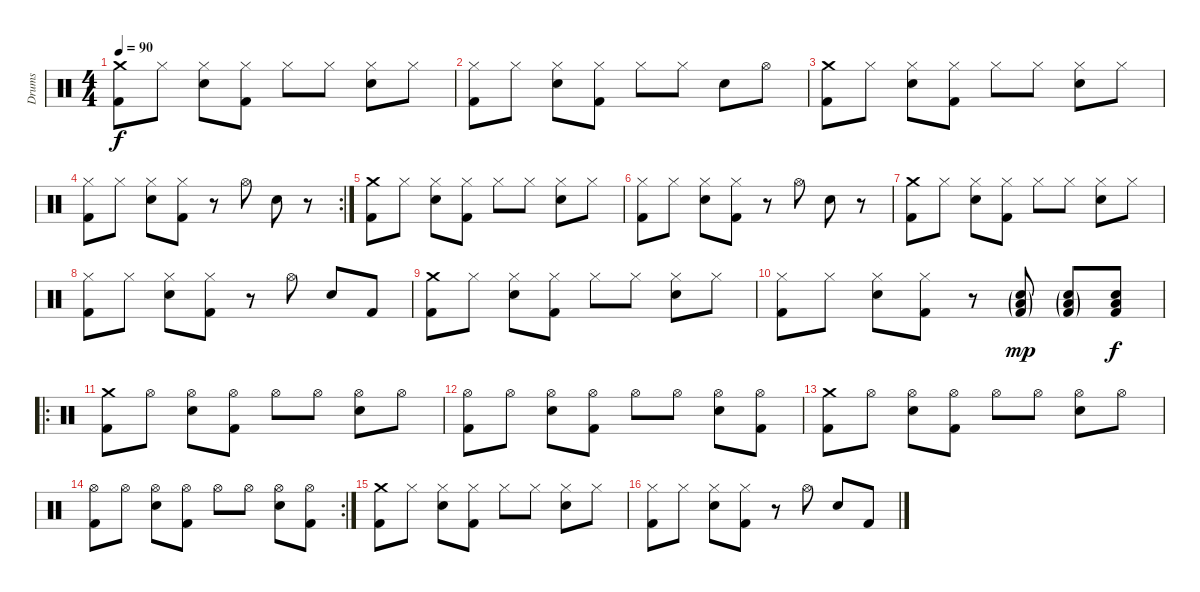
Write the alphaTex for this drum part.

\track ("Drums" "Drums") {instrument percussion}
\staff {score}
\articulation defaults
\ts (4 4)
\tempo 90
\clef neutral
\ks c
("Crash medium (hit)" "Kick (hit) 2").8{dy f} "Hi-Hat (closed)".8 ("Hi-Hat (closed)" "Snare (hit) 2").8 ("Hi-Hat (closed)" "Kick (hit) 2").8 "Hi-Hat (closed)".8 "Hi-Hat (closed)".8 ("Hi-Hat (closed)" "Snare (hit) 2").8 "Hi-Hat (closed)".8 |
("Hi-Hat (closed)" "Kick (hit) 2").8 "Hi-Hat (closed)".8 ("Hi-Hat (closed)" "Snare (hit) 2").8 ("Hi-Hat (closed)" "Kick (hit) 2").8 "Hi-Hat (closed)".8 "Hi-Hat (closed)".8 "Snare (hit) 2".8 "Hi-Hat (open)".8 |
("Crash medium (hit)" "Kick (hit) 2").8 "Hi-Hat (closed)".8 ("Hi-Hat (closed)" "Snare (hit) 2").8 ("Hi-Hat (closed)" "Kick (hit) 2").8 "Hi-Hat (closed)".8 "Hi-Hat (closed)".8 ("Hi-Hat (closed)" "Snare (hit) 2").8 "Hi-Hat (closed)".8 |
\rc 2
("Hi-Hat (closed)" "Kick (hit) 2").8 "Hi-Hat (closed)".8 ("Hi-Hat (closed)" "Snare (hit) 2").8 ("Hi-Hat (closed)" "Kick (hit) 2").8 r.8 "Hi-Hat (open)".8 "Snare (hit) 2".8 r.8 |
("Crash medium (hit)" "Kick (hit) 2").8 "Hi-Hat (closed)".8 ("Hi-Hat (closed)" "Snare (hit) 2").8 ("Hi-Hat (closed)" "Kick (hit) 2").8 "Hi-Hat (closed)".8 "Hi-Hat (closed)".8 ("Hi-Hat (closed)" "Snare (hit) 2").8 "Hi-Hat (closed)".8 |
("Hi-Hat (closed)" "Kick (hit) 2").8 "Hi-Hat (closed)".8 ("Hi-Hat (closed)" "Snare (hit) 2").8 ("Hi-Hat (closed)" "Kick (hit) 2").8 r.8 "Hi-Hat (open)".8 "Snare (hit) 2".8 r.8 |
("Crash medium (hit)" "Kick (hit) 2").8 "Hi-Hat (closed)".8 ("Hi-Hat (closed)" "Snare (hit) 2").8 ("Hi-Hat (closed)" "Kick (hit) 2").8 "Hi-Hat (closed)".8 "Hi-Hat (closed)".8 ("Hi-Hat (closed)" "Snare (hit) 2").8 "Hi-Hat (closed)".8 |
("Hi-Hat (closed)" "Kick (hit) 2").8 "Hi-Hat (closed)".8 ("Hi-Hat (closed)" "Snare (hit) 2").8 ("Hi-Hat (closed)" "Kick (hit) 2").8 r.8 "Hi-Hat (open)".8 "Snare (hit) 2".8 "Kick (hit) 2".8 |
("Crash medium (hit)" "Kick (hit) 2").8 "Hi-Hat (closed)".8 ("Hi-Hat (closed)" "Snare (hit) 2").8 ("Hi-Hat (closed)" "Kick (hit) 2").8 "Hi-Hat (closed)".8 "Hi-Hat (closed)".8 ("Hi-Hat (closed)" "Snare (hit) 2").8 "Hi-Hat (closed)".8 |
("Hi-Hat (closed)" "Kick (hit) 2").8 "Hi-Hat (closed)".8 ("Hi-Hat (closed)" "Snare (hit) 2").8 ("Hi-Hat (closed)" "Kick (hit) 2").8 r.8 ("Low Floor Tom (hit)"{g} "Kick (hit) 2"{g} "Snare (hit) 2"{g}).8{dy mp} ("Low Floor Tom (hit)"{g} "Kick (hit) 2"{g} "Snare (hit) 2"{g}).8 ("Low Floor Tom (hit)" "Kick (hit) 2" "Snare (hit) 2").8{dy f} |
\ro
("Crash medium (hit)" "Kick (hit) 2").8 "Hi-Hat (open)".8 ("Hi-Hat (open)" "Snare (hit) 2").8 ("Hi-Hat (open)" "Kick (hit) 2").8 "Hi-Hat (open)".8 "Hi-Hat (open)".8 ("Hi-Hat (open)" "Snare (hit) 2").8 "Hi-Hat (open)".8 |
("Hi-Hat (open)" "Kick (hit) 2").8 "Hi-Hat (open)".8 ("Hi-Hat (open)" "Snare (hit) 2").8 ("Hi-Hat (open)" "Kick (hit) 2").8 "Hi-Hat (open)".8 "Hi-Hat (open)".8 ("Hi-Hat (open)" "Snare (hit) 2").8 ("Hi-Hat (open)" "Kick (hit) 2").8 |
("Crash medium (hit)" "Kick (hit) 2").8 "Hi-Hat (open)".8 ("Hi-Hat (open)" "Snare (hit) 2").8 ("Hi-Hat (open)" "Kick (hit) 2").8 "Hi-Hat (open)".8 "Hi-Hat (open)".8 ("Hi-Hat (open)" "Snare (hit) 2").8 "Hi-Hat (open)".8 |
\rc 2
("Hi-Hat (open)" "Kick (hit) 2").8 "Hi-Hat (open)".8 ("Hi-Hat (open)" "Snare (hit) 2").8 ("Hi-Hat (open)" "Kick (hit) 2").8 "Hi-Hat (open)".8 "Hi-Hat (open)".8 ("Hi-Hat (open)" "Snare (hit) 2").8 ("Hi-Hat (open)" "Kick (hit) 2").8 |
("Crash medium (hit)" "Kick (hit) 2").8 "Hi-Hat (closed)".8 ("Hi-Hat (closed)" "Snare (hit) 2").8 ("Hi-Hat (closed)" "Kick (hit) 2").8 "Hi-Hat (closed)".8 "Hi-Hat (closed)".8 ("Hi-Hat (closed)" "Snare (hit) 2").8 "Hi-Hat (closed)".8 |
("Hi-Hat (closed)" "Kick (hit) 2").8 "Hi-Hat (closed)".8 ("Hi-Hat (closed)" "Snare (hit) 2").8 ("Hi-Hat (closed)" "Kick (hit) 2").8 r.8 "Hi-Hat (open)".8 "Snare (hit) 2".8 "Kick (hit) 2".8
